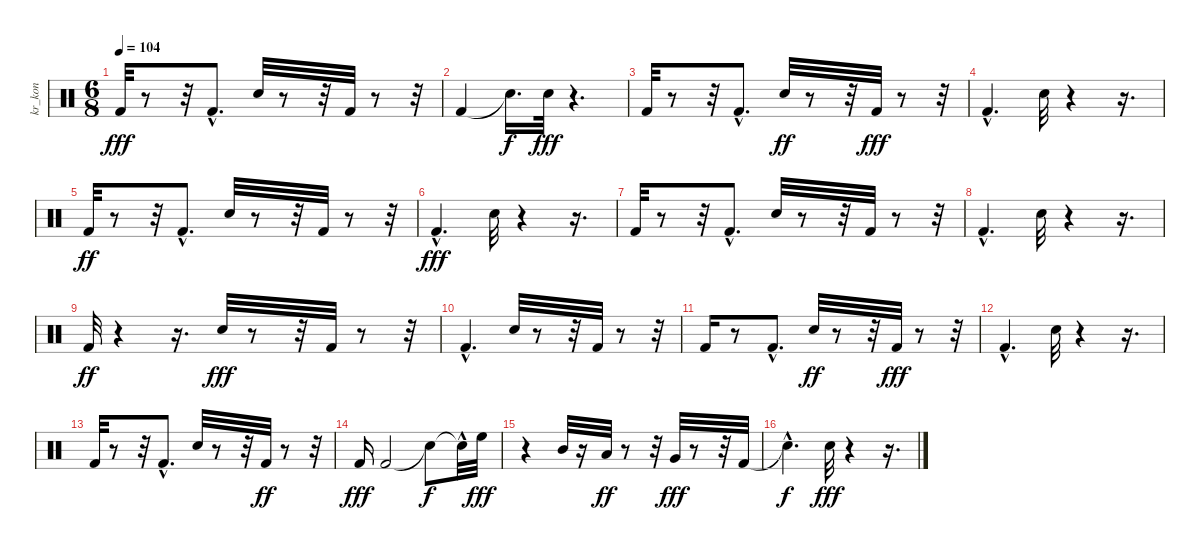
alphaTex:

\track ("kr_kon" "kr_kon") {instrument percussion}
\staff {score}
\articulation defaults
\ts (6 8)
\tempo 104
\clef neutral
\ks c "Kick (hit) 2".32{dy fff}
r.8 r.32 "Kick (hit) 2"{hac}.8{d} "Electric Snare (hit)".32 r.8 r.32 "Kick (hit) 2".32 r.8 r.32 |
"Kick (hit) 2".4 "Snare (hit)"{t}.16{d dy f} "Electric Snare (hit)".32{dy fff} r.4{d} |
"Kick (hit) 2".32 r.8 r.32 "Kick (hit) 2"{hac}.8{d} "Electric Snare (hit)".32{dy ff} r.8 r.32 "Kick (hit) 2".32{dy fff} r.8 r.32 |
"Kick (hit) 2"{hac}.4{d} "Electric Snare (hit)".32 r.4 r.16{d} |
"Kick (hit) 2".32{dy ff} r.8 r.32 "Kick (hit) 2"{hac}.8{d} "Electric Snare (hit)".32 r.8 r.32 "Kick (hit) 2".32 r.8 r.32 |
"Kick (hit) 2"{hac}.4{d dy fff} "Electric Snare (hit)".32 r.4 r.16{d} |
"Kick (hit) 2".32 r.8 r.32 "Kick (hit) 2"{hac}.8{d} "Electric Snare (hit)".32 r.8 r.32 "Kick (hit) 2".32 r.8 r.32 |
"Kick (hit) 2"{hac}.4{d} "Electric Snare (hit)".32 r.4 r.16{d} |
"Kick (hit) 2".32{dy ff} r.4 r.16{d} "Electric Snare (hit)".32{dy fff} r.8 r.32 "Kick (hit) 2".32 r.8 r.32 |
"Kick (hit) 2"{hac}.4{d} "Electric Snare (hit)".32 r.8 r.32 "Kick (hit) 2".32 r.8 r.32 |
"Kick (hit) 2".16 r.8 "Kick (hit) 2"{hac}.8{d} "Electric Snare (hit)".32{dy ff} r.8 r.32 "Kick (hit) 2".32{dy fff} r.8 r.32 |
"Kick (hit) 2"{hac}.4{d} "Electric Snare (hit)".32 r.4 r.16{d} |
"Kick (hit) 2".32 r.8 r.32 "Kick (hit) 2"{hac}.8{d} "Electric Snare (hit)".32 r.8 r.32 "Kick (hit) 2".32{dy ff} r.8 r.32 |
"Kick (hit) 2".16{dy fff} "Kick (hit) 2".2 "Snare (hit)"{t}.8{dy f} "Snare (hit)"{hac t}.32 "High Floor Tom (hit)".32{dy fff} |
r.4 "Mid Tom (hit)".32 r.16 "Low Tom (hit)".32{dy ff} r.8 r.32 "Very Low Tom (hit)".32{dy fff} r.8 r.32 "Kick (hit) 2".32 |
"Snare (hit)"{hac t}.4{d dy f} "Electric Snare (hit)".32{dy fff} r.4 r.16{d}
